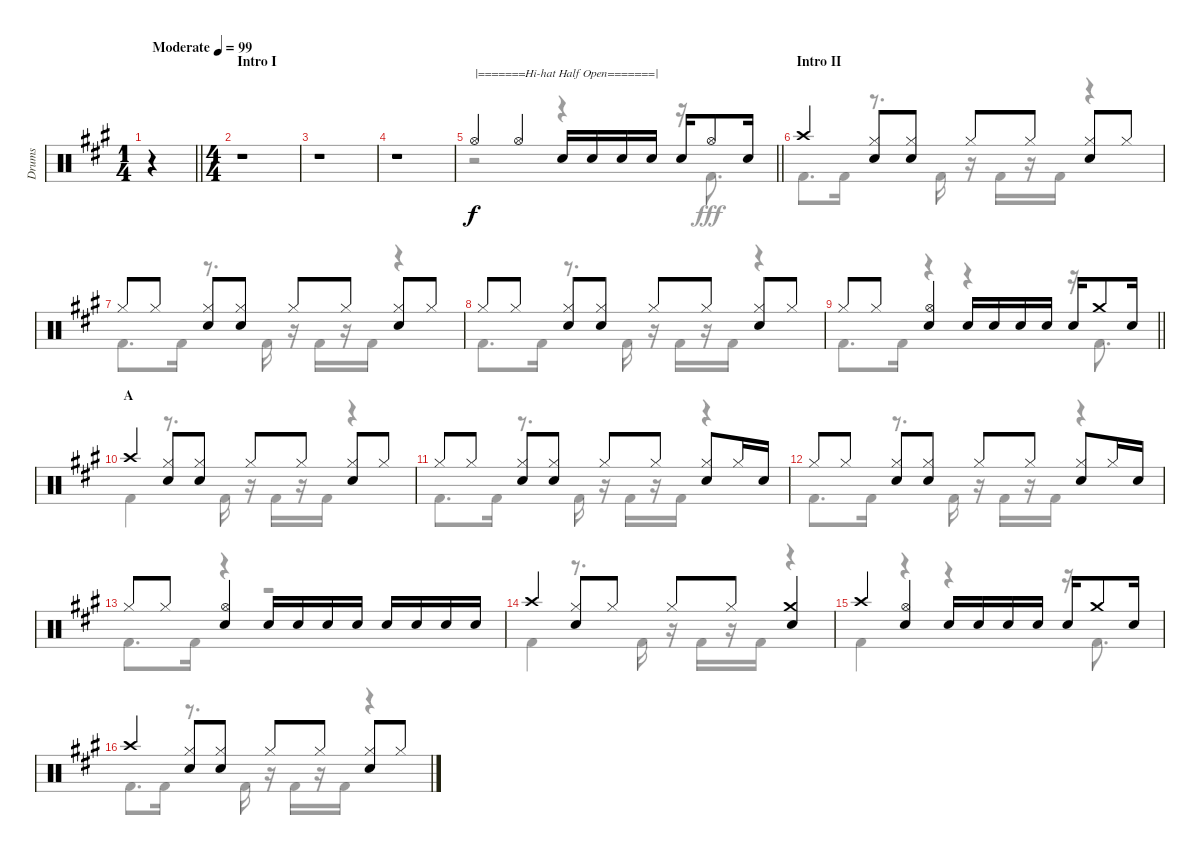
\track ("Drums" "Drums") {instrument percussion}
\staff {score}
\articulation defaults
\voice
\ts (1 4)
\tempo (99 "Moderate")
\clef neutral
\barLineRight lightlight
\ks a
r.4{dy f} |
\ts (4 4)
\section ("" "Intro I")
r.1 |
r.1 |
r.1 |
\barLineRight lightlight "Hi-Hat (open)".4{txt "|=======Hi-hat Half Open=======|"} "Hi-Hat (open)".4 "Snare (hit) 2".16 "Snare (hit) 2".16 "Snare (hit) 2".16 "Snare (hit) 2".16 "Snare (hit) 2".16 "Hi-Hat (open)".8 "Snare (hit) 2".16
|
\section ("" "Intro II")
"Crash high (hit)".4 ("Hi-Hat (closed)" "Snare (hit) 2").8 ("Hi-Hat (closed)" "Snare (hit) 2").8 "Hi-Hat (closed)".8 "Hi-Hat (closed)".8 ("Hi-Hat (closed)" "Snare (hit) 2").8 "Hi-Hat (closed)".8 |
"Hi-Hat (closed)".8 "Hi-Hat (closed)".8 ("Hi-Hat (closed)" "Snare (hit) 2").8 ("Hi-Hat (closed)" "Snare (hit) 2").8 "Hi-Hat (closed)".8 "Hi-Hat (closed)".8 ("Hi-Hat (closed)" "Snare (hit) 2").8 "Hi-Hat (closed)".8 |
"Hi-Hat (closed)".8 "Hi-Hat (closed)".8 ("Hi-Hat (closed)" "Snare (hit) 2").8 ("Hi-Hat (closed)" "Snare (hit) 2").8 "Hi-Hat (closed)".8 "Hi-Hat (closed)".8 ("Hi-Hat (closed)" "Snare (hit) 2").8 "Hi-Hat (closed)".8 |
\barLineRight lightlight "Hi-Hat (closed)".8 "Hi-Hat (closed)".8
("Hi-Hat (open)" "Snare (hit) 2").4 "Snare (hit) 2".16 "Snare (hit) 2".16 "Snare (hit) 2".16 "Snare (hit) 2".16 "Snare (hit) 2".16 "Crash medium (hit)".8 "Snare (hit) 2".16 |
\section ("" "A")
"Crash high (hit)".4 ("Hi-Hat (closed)" "Snare (hit) 2").8 ("Hi-Hat (closed)" "Snare (hit) 2").8 "Hi-Hat (closed)".8 "Hi-Hat (closed)".8 ("Hi-Hat (closed)" "Snare (hit) 2").8 "Hi-Hat (closed)".8 |
"Hi-Hat (closed)".8 "Hi-Hat (closed)".8 ("Hi-Hat (closed)" "Snare (hit) 2").8 ("Hi-Hat (closed)" "Snare (hit) 2").8 "Hi-Hat (closed)".8 "Hi-Hat (closed)".8 ("Hi-Hat (closed)" "Snare (hit) 2").8 "Hi-Hat (closed)".16 "Snare (hit) 2".16 |
"Hi-Hat (closed)".8 "Hi-Hat (closed)".8 ("Hi-Hat (closed)" "Snare (hit) 2").8 ("Hi-Hat (closed)" "Snare (hit) 2").8 "Hi-Hat (closed)".8 "Hi-Hat (closed)".8 ("Hi-Hat (closed)" "Snare (hit) 2").8 "Hi-Hat (closed)".16 "Snare (hit) 2".16 |
"Hi-Hat (closed)".8 "Hi-Hat (closed)".8 ("Hi-Hat (open)" "Snare (hit) 2").4 "Snare (hit) 2".16 "Snare (hit) 2".16 "Snare (hit) 2".16 "Snare (hit) 2".16 "Snare (hit) 2".16 "Snare (hit) 2".16 "Snare (hit) 2".16 "Snare (hit) 2".16 |
"Crash high (hit)".4 ("Hi-Hat (closed)" "Snare (hit) 2").8 "Hi-Hat (closed)".8 "Hi-Hat (closed)".8 "Hi-Hat (closed)".8 ("Crash medium (hit)" "Snare (hit) 2").4 |
"Crash high (hit)".4 ("Hi-Hat (open)" "Snare (hit) 2").4 "Snare (hit) 2".16 "Snare (hit) 2".16 "Snare (hit) 2".16 "Snare (hit) 2".16 "Snare (hit) 2".16 "Crash medium (hit)".8 "Snare (hit) 2".16 |
"Crash high (hit)".4 ("Hi-Hat (closed)" "Snare (hit) 2").8 ("Hi-Hat (closed)" "Snare (hit) 2").8 "Hi-Hat (closed)".8 "Hi-Hat (closed)".8 ("Hi-Hat (closed)" "Snare (hit) 2").8 "Hi-Hat (closed)".8
\voice
\clef neutral
\ottava regular
\simile none
\barLineRight lightlight
\ks a
r.4{dy fff} |
r.1 |
r.1 |
r.1 |
\barLineRight lightlight
r.2 r.4 r.16 "Kick (hit) 2".8{d} |
"Kick (hit) 2".8{d} "Kick (hit) 2".16 r.8{d} "Kick (hit) 2".16 r.16 "Kick (hit) 2".16 r.16 "Kick (hit) 2".16 r.4 |
"Kick (hit) 2".8{d} "Kick (hit) 2".16 r.8{d} "Kick (hit) 2".16 r.16 "Kick (hit) 2".16 r.16 "Kick (hit) 2".16 r.4 |
"Kick (hit) 2".8{d} "Kick (hit) 2".16 r.8{d} "Kick (hit) 2".16 r.16 "Kick (hit) 2".16 r.16 "Kick (hit) 2".16 r.4 |
\barLineRight lightlight "Kick (hit) 2".8{d} "Kick (hit) 2".16
r.4 r.4 r.16 "Kick (hit) 2".8{d} |
"Kick (hit) 2".4 r.8{d} "Kick (hit) 2".16 r.16 "Kick (hit) 2".16 r.16 "Kick (hit) 2".16 r.4 |
"Kick (hit) 2".8{d} "Kick (hit) 2".16 r.8{d} "Kick (hit) 2".16 r.16 "Kick (hit) 2".16 r.16 "Kick (hit) 2".16 r.4 |
"Kick (hit) 2".8{d} "Kick (hit) 2".16 r.8{d} "Kick (hit) 2".16 r.16 "Kick (hit) 2".16 r.16 "Kick (hit) 2".16 r.4 |
"Kick (hit) 2".8{d} "Kick (hit) 2".16 r.4 r.2 |
"Kick (hit) 2".4 r.8{d} "Kick (hit) 2".16 r.16 "Kick (hit) 2".16 r.16 "Kick (hit) 2".16 r.4 |
"Kick (hit) 2".4 r.4 r.4 r.16 "Kick (hit) 2".8{d} |
"Kick (hit) 2".8{d} "Kick (hit) 2".16 r.8{d} "Kick (hit) 2".16 r.16 "Kick (hit) 2".16 r.16 "Kick (hit) 2".16 r.4
